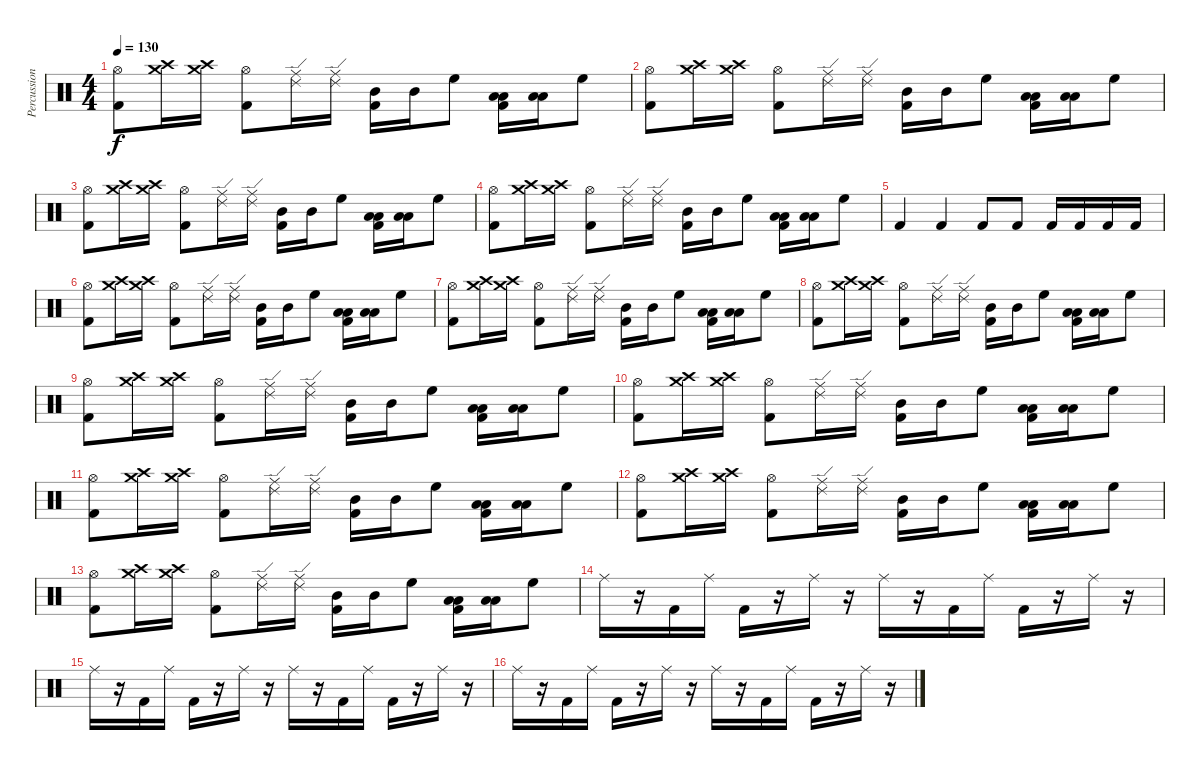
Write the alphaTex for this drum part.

\track ("Percussions" "Percussion") {instrument percussion}
\staff {score}
\articulation defaults
\ts (4 4)
\tempo 130
\clef neutral
\ks c
("Hi-Hat (open)" "Kick (hit) 2").8{dy f} ("Crash high (hit)" "Crash medium (hit)").16 ("Crash high (hit)" "Crash medium (hit)").16 ("Hi-Hat (open)" "Kick (hit) 2").8 ("Ride (middle)" "Ride (edge) 2").16 ("Ride (middle)" "Ride (edge) 2").16 ("Mid Tom (hit)" "Kick (hit) 2").16 "Mid Tom (hit)".16 "High Floor Tom (hit)".8 ("Low Tom (hit)" "Low Floor Tom (hit)" "Kick (hit) 2").16 ("Low Tom (hit)" "Low Floor Tom (hit)").16 "High Floor Tom (hit)".8 |
("Hi-Hat (open)" "Kick (hit) 2").8 ("Crash high (hit)" "Crash medium (hit)").16 ("Crash high (hit)" "Crash medium (hit)").16 ("Hi-Hat (open)" "Kick (hit) 2").8 ("Ride (middle)" "Ride (edge) 2").16 ("Ride (middle)" "Ride (edge) 2").16 ("Mid Tom (hit)" "Kick (hit) 2").16 "Mid Tom (hit)".16 "High Floor Tom (hit)".8 ("Low Tom (hit)" "Low Floor Tom (hit)" "Kick (hit) 2").16 ("Low Tom (hit)" "Low Floor Tom (hit)").16 "High Floor Tom (hit)".8 |
("Hi-Hat (open)" "Kick (hit) 2").8 ("Crash high (hit)" "Crash medium (hit)").16 ("Crash high (hit)" "Crash medium (hit)").16 ("Hi-Hat (open)" "Kick (hit) 2").8 ("Ride (middle)" "Ride (edge) 2").16 ("Ride (middle)" "Ride (edge) 2").16 ("Mid Tom (hit)" "Kick (hit) 2").16 "Mid Tom (hit)".16 "High Floor Tom (hit)".8 ("Low Tom (hit)" "Low Floor Tom (hit)" "Kick (hit) 2").16 ("Low Tom (hit)" "Low Floor Tom (hit)").16 "High Floor Tom (hit)".8 |
("Hi-Hat (open)" "Kick (hit) 2").8 ("Crash high (hit)" "Crash medium (hit)").16 ("Crash high (hit)" "Crash medium (hit)").16 ("Hi-Hat (open)" "Kick (hit) 2").8 ("Ride (middle)" "Ride (edge) 2").16 ("Ride (middle)" "Ride (edge) 2").16 ("Mid Tom (hit)" "Kick (hit) 2").16 "Mid Tom (hit)".16 "High Floor Tom (hit)".8 ("Low Tom (hit)" "Low Floor Tom (hit)" "Kick (hit) 2").16 ("Low Tom (hit)" "Low Floor Tom (hit)").16 "High Floor Tom (hit)".8 |
"Kick (hit) 2".4 "Kick (hit) 2".4 "Kick (hit) 2".8 "Kick (hit) 2".8 "Kick (hit) 2".16 "Kick (hit) 2".16 "Kick (hit) 2".16 "Kick (hit) 2".16 |
("Hi-Hat (open)" "Kick (hit) 2").8 ("Crash high (hit)" "Crash medium (hit)").16 ("Crash high (hit)" "Crash medium (hit)").16 ("Hi-Hat (open)" "Kick (hit) 2").8 ("Ride (middle)" "Ride (edge) 2").16 ("Ride (middle)" "Ride (edge) 2").16 ("Mid Tom (hit)" "Kick (hit) 2").16 "Mid Tom (hit)".16 "High Floor Tom (hit)".8 ("Low Tom (hit)" "Low Floor Tom (hit)" "Kick (hit) 2").16 ("Low Tom (hit)" "Low Floor Tom (hit)").16 "High Floor Tom (hit)".8 |
("Hi-Hat (open)" "Kick (hit) 2").8 ("Crash high (hit)" "Crash medium (hit)").16 ("Crash high (hit)" "Crash medium (hit)").16 ("Hi-Hat (open)" "Kick (hit) 2").8 ("Ride (middle)" "Ride (edge) 2").16 ("Ride (middle)" "Ride (edge) 2").16 ("Mid Tom (hit)" "Kick (hit) 2").16 "Mid Tom (hit)".16 "High Floor Tom (hit)".8 ("Low Tom (hit)" "Low Floor Tom (hit)" "Kick (hit) 2").16 ("Low Tom (hit)" "Low Floor Tom (hit)").16 "High Floor Tom (hit)".8 |
("Hi-Hat (open)" "Kick (hit) 2").8 ("Crash high (hit)" "Crash medium (hit)").16 ("Crash high (hit)" "Crash medium (hit)").16 ("Hi-Hat (open)" "Kick (hit) 2").8 ("Ride (middle)" "Ride (edge) 2").16 ("Ride (middle)" "Ride (edge) 2").16 ("Mid Tom (hit)" "Kick (hit) 2").16 "Mid Tom (hit)".16 "High Floor Tom (hit)".8 ("Low Tom (hit)" "Low Floor Tom (hit)" "Kick (hit) 2").16 ("Low Tom (hit)" "Low Floor Tom (hit)").16 "High Floor Tom (hit)".8 |
("Hi-Hat (open)" "Kick (hit) 2").8 ("Crash high (hit)" "Crash medium (hit)").16 ("Crash high (hit)" "Crash medium (hit)").16 ("Hi-Hat (open)" "Kick (hit) 2").8 ("Ride (middle)" "Ride (edge) 2").16 ("Ride (middle)" "Ride (edge) 2").16 ("Mid Tom (hit)" "Kick (hit) 2").16 "Mid Tom (hit)".16 "High Floor Tom (hit)".8 ("Low Tom (hit)" "Low Floor Tom (hit)" "Kick (hit) 2").16 ("Low Tom (hit)" "Low Floor Tom (hit)").16 "High Floor Tom (hit)".8 |
("Hi-Hat (open)" "Kick (hit) 2").8 ("Crash high (hit)" "Crash medium (hit)").16 ("Crash high (hit)" "Crash medium (hit)").16 ("Hi-Hat (open)" "Kick (hit) 2").8 ("Ride (middle)" "Ride (edge) 2").16 ("Ride (middle)" "Ride (edge) 2").16 ("Mid Tom (hit)" "Kick (hit) 2").16 "Mid Tom (hit)".16 "High Floor Tom (hit)".8 ("Low Tom (hit)" "Low Floor Tom (hit)" "Kick (hit) 2").16 ("Low Tom (hit)" "Low Floor Tom (hit)").16 "High Floor Tom (hit)".8 |
("Hi-Hat (open)" "Kick (hit) 2").8 ("Crash high (hit)" "Crash medium (hit)").16 ("Crash high (hit)" "Crash medium (hit)").16 ("Hi-Hat (open)" "Kick (hit) 2").8 ("Ride (middle)" "Ride (edge) 2").16 ("Ride (middle)" "Ride (edge) 2").16 ("Mid Tom (hit)" "Kick (hit) 2").16 "Mid Tom (hit)".16 "High Floor Tom (hit)".8 ("Low Tom (hit)" "Low Floor Tom (hit)" "Kick (hit) 2").16 ("Low Tom (hit)" "Low Floor Tom (hit)").16 "High Floor Tom (hit)".8 |
("Hi-Hat (open)" "Kick (hit) 2").8 ("Crash high (hit)" "Crash medium (hit)").16 ("Crash high (hit)" "Crash medium (hit)").16 ("Hi-Hat (open)" "Kick (hit) 2").8 ("Ride (middle)" "Ride (edge) 2").16 ("Ride (middle)" "Ride (edge) 2").16 ("Mid Tom (hit)" "Kick (hit) 2").16 "Mid Tom (hit)".16 "High Floor Tom (hit)".8 ("Low Tom (hit)" "Low Floor Tom (hit)" "Kick (hit) 2").16 ("Low Tom (hit)" "Low Floor Tom (hit)").16 "High Floor Tom (hit)".8 |
("Hi-Hat (open)" "Kick (hit) 2").8 ("Crash high (hit)" "Crash medium (hit)").16 ("Crash high (hit)" "Crash medium (hit)").16 ("Hi-Hat (open)" "Kick (hit) 2").8 ("Ride (middle)" "Ride (edge) 2").16 ("Ride (middle)" "Ride (edge) 2").16 ("Mid Tom (hit)" "Kick (hit) 2").16 "Mid Tom (hit)".16 "High Floor Tom (hit)".8 ("Low Tom (hit)" "Low Floor Tom (hit)" "Kick (hit) 2").16 ("Low Tom (hit)" "Low Floor Tom (hit)").16 "High Floor Tom (hit)".8 |
"Ride (middle)".16 r.16 "Kick (hit) 2".16 "Ride (middle)".16 "Kick (hit) 2".16 r.16 "Ride (middle)".16 r.16 "Ride (middle)".16 r.16 "Kick (hit) 2".16 "Ride (middle)".16 "Kick (hit) 2".16 r.16 "Ride (middle)".16 r.16 |
"Ride (middle)".16 r.16 "Kick (hit) 2".16 "Ride (middle)".16 "Kick (hit) 2".16 r.16 "Ride (middle)".16 r.16 "Ride (middle)".16 r.16 "Kick (hit) 2".16 "Ride (middle)".16 "Kick (hit) 2".16 r.16 "Ride (middle)".16 r.16 |
"Ride (middle)".16 r.16 "Kick (hit) 2".16 "Ride (middle)".16 "Kick (hit) 2".16 r.16 "Ride (middle)".16 r.16 "Ride (middle)".16 r.16 "Kick (hit) 2".16 "Ride (middle)".16 "Kick (hit) 2".16 r.16 "Ride (middle)".16 r.16
